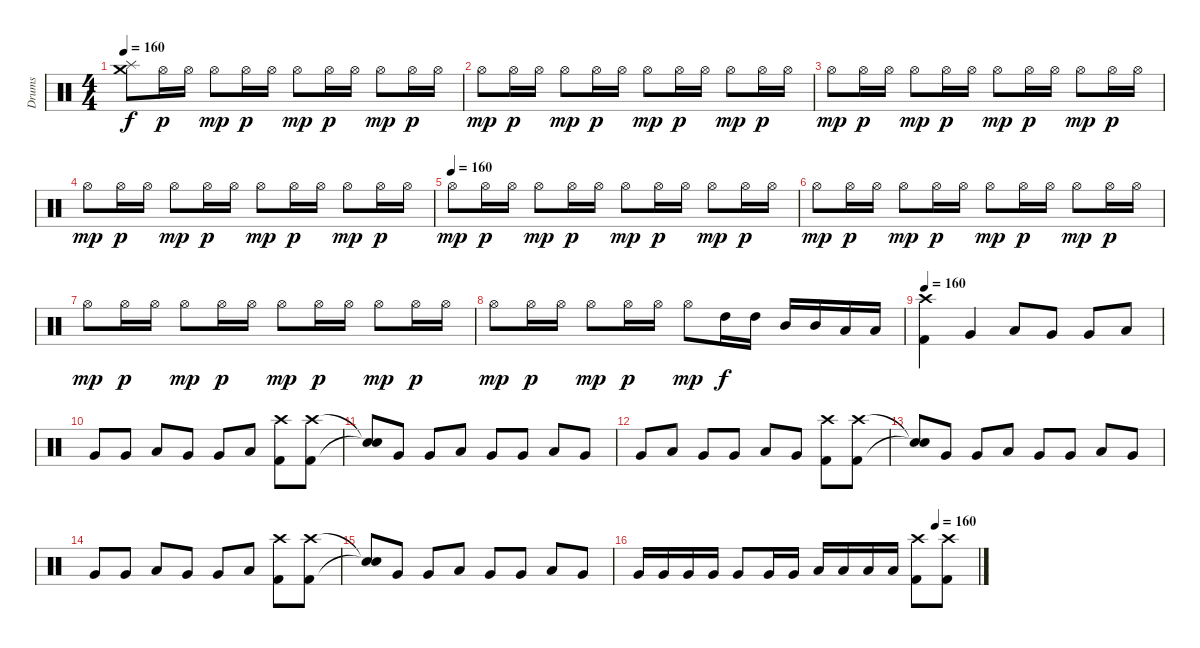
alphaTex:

\track ("Drums" "Drums") {instrument percussion}
\staff {score}
\articulation defaults
\ts (4 4)
\section ("" "")
\tempo 160
\clef neutral
\ks c
("Crash medium (hit)" "Splash (hit)").8{dy f} "Hi-Hat (open)".16{dy p} "Hi-Hat (open)".16 "Hi-Hat (open)".8{dy mp} "Hi-Hat (open)".16{dy p} "Hi-Hat (open)".16 "Hi-Hat (open)".8{dy mp} "Hi-Hat (open)".16{dy p} "Hi-Hat (open)".16 "Hi-Hat (open)".8{dy mp} "Hi-Hat (open)".16{dy p} "Hi-Hat (open)".16 |
"Hi-Hat (open)".8{dy mp} "Hi-Hat (open)".16{dy p} "Hi-Hat (open)".16 "Hi-Hat (open)".8{dy mp} "Hi-Hat (open)".16{dy p} "Hi-Hat (open)".16 "Hi-Hat (open)".8{dy mp} "Hi-Hat (open)".16{dy p} "Hi-Hat (open)".16 "Hi-Hat (open)".8{dy mp} "Hi-Hat (open)".16{dy p} "Hi-Hat (open)".16 |
"Hi-Hat (open)".8{dy mp} "Hi-Hat (open)".16{dy p} "Hi-Hat (open)".16 "Hi-Hat (open)".8{dy mp} "Hi-Hat (open)".16{dy p} "Hi-Hat (open)".16 "Hi-Hat (open)".8{dy mp} "Hi-Hat (open)".16{dy p} "Hi-Hat (open)".16 "Hi-Hat (open)".8{dy mp} "Hi-Hat (open)".16{dy p} "Hi-Hat (open)".16 |
"Hi-Hat (open)".8{dy mp} "Hi-Hat (open)".16{dy p} "Hi-Hat (open)".16 "Hi-Hat (open)".8{dy mp} "Hi-Hat (open)".16{dy p} "Hi-Hat (open)".16 "Hi-Hat (open)".8{dy mp} "Hi-Hat (open)".16{dy p} "Hi-Hat (open)".16 "Hi-Hat (open)".8{dy mp} "Hi-Hat (open)".16{dy p} "Hi-Hat (open)".16 |
\tempo (160)
"Hi-Hat (open)".8{dy mp} "Hi-Hat (open)".16{dy p} "Hi-Hat (open)".16 "Hi-Hat (open)".8{dy mp} "Hi-Hat (open)".16{dy p} "Hi-Hat (open)".16 "Hi-Hat (open)".8{dy mp} "Hi-Hat (open)".16{dy p} "Hi-Hat (open)".16 "Hi-Hat (open)".8{dy mp} "Hi-Hat (open)".16{dy p} "Hi-Hat (open)".16 |
"Hi-Hat (open)".8{dy mp} "Hi-Hat (open)".16{dy p} "Hi-Hat (open)".16 "Hi-Hat (open)".8{dy mp} "Hi-Hat (open)".16{dy p} "Hi-Hat (open)".16 "Hi-Hat (open)".8{dy mp} "Hi-Hat (open)".16{dy p} "Hi-Hat (open)".16 "Hi-Hat (open)".8{dy mp} "Hi-Hat (open)".16{dy p} "Hi-Hat (open)".16 |
"Hi-Hat (open)".8{dy mp} "Hi-Hat (open)".16{dy p} "Hi-Hat (open)".16 "Hi-Hat (open)".8{dy mp} "Hi-Hat (open)".16{dy p} "Hi-Hat (open)".16 "Hi-Hat (open)".8{dy mp} "Hi-Hat (open)".16{dy p} "Hi-Hat (open)".16 "Hi-Hat (open)".8{dy mp} "Hi-Hat (open)".16{dy p} "Hi-Hat (open)".16 |
"Hi-Hat (open)".8{dy mp} "Hi-Hat (open)".16{dy p} "Hi-Hat (open)".16 "Hi-Hat (open)".8{dy mp} "Hi-Hat (open)".16{dy p} "Hi-Hat (open)".16 "Hi-Hat (open)".8{dy mp} "High Tom (hit)".16{dy f} "High Tom (hit)".16 "Mid Tom (hit)".16 "Mid Tom (hit)".16 "Low Tom (hit)".16 "Low Tom (hit)".16 |
\tempo 160
("Crash high (hit)" "Kick (hit) 2").4 "Very Low Tom (hit)".4 "Low Floor Tom (hit)".8 "Very Low Tom (hit)".8 "Very Low Tom (hit)".8 "Low Floor Tom (hit)".8 |
"Very Low Tom (hit)".8 "Very Low Tom (hit)".8 "Low Floor Tom (hit)".8 "Very Low Tom (hit)".8 "Very Low Tom (hit)".8 "Low Floor Tom (hit)".8 ("Crash high (hit)" "Kick (hit) 2").8 ("Crash high (hit)" "Kick (hit) 2").8 |
("Snare (hit)"{t} "Snare (hit)"{t}).8 "Very Low Tom (hit)".8 "Very Low Tom (hit)".8 "Low Floor Tom (hit)".8 "Very Low Tom (hit)".8 "Very Low Tom (hit)".8 "Low Floor Tom (hit)".8 "Very Low Tom (hit)".8 |
"Very Low Tom (hit)".8 "Low Floor Tom (hit)".8 "Very Low Tom (hit)".8 "Very Low Tom (hit)".8 "Low Floor Tom (hit)".8 "Very Low Tom (hit)".8 ("Crash high (hit)" "Kick (hit) 2").8 ("Crash high (hit)" "Kick (hit) 2").8 |
("Snare (hit)"{t} "Snare (hit)"{t}).8 "Very Low Tom (hit)".8 "Very Low Tom (hit)".8 "Low Floor Tom (hit)".8 "Very Low Tom (hit)".8 "Very Low Tom (hit)".8 "Low Floor Tom (hit)".8 "Very Low Tom (hit)".8 |
"Very Low Tom (hit)".8 "Very Low Tom (hit)".8 "Low Floor Tom (hit)".8 "Very Low Tom (hit)".8 "Very Low Tom (hit)".8 "Low Floor Tom (hit)".8 ("Crash high (hit)" "Kick (hit) 2").8 ("Crash high (hit)" "Kick (hit) 2").8 |
("Snare (hit)"{t} "Snare (hit)"{t}).8 "Very Low Tom (hit)".8 "Very Low Tom (hit)".8 "Low Floor Tom (hit)".8 "Very Low Tom (hit)".8 "Very Low Tom (hit)".8 "Low Floor Tom (hit)".8 "Very Low Tom (hit)".8 |
\tempo (160 0.875)
"Very Low Tom (hit)".16 "Very Low Tom (hit)".16 "Very Low Tom (hit)".16 "Very Low Tom (hit)".16 "Very Low Tom (hit)".8 "Very Low Tom (hit)".16 "Very Low Tom (hit)".16 "Low Floor Tom (hit)".16 "Low Floor Tom (hit)".16 "Low Floor Tom (hit)".16 "Low Floor Tom (hit)".16 ("Crash high (hit)" "Kick (hit) 2").8 ("Crash high (hit)" "Kick (hit) 2").8
